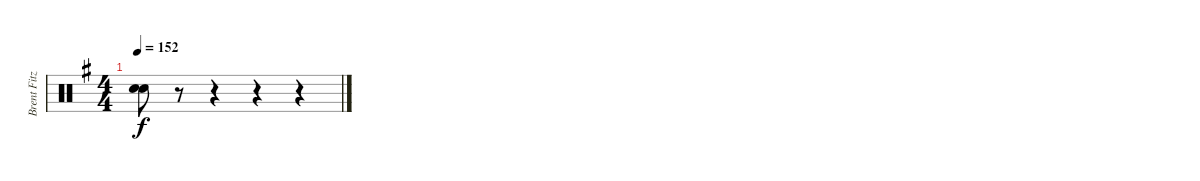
\track ("Brent Fitz" "Brent Fitz") {instrument percussion}
\staff {score}
\articulation defaults
\ts (4 4)
\tempo 152
\clef neutral
\ks eminor
("Snare (hit)"{t} "Snare (hit)"{t}).8{dy f} r.8 r.4 r.4 r.4
